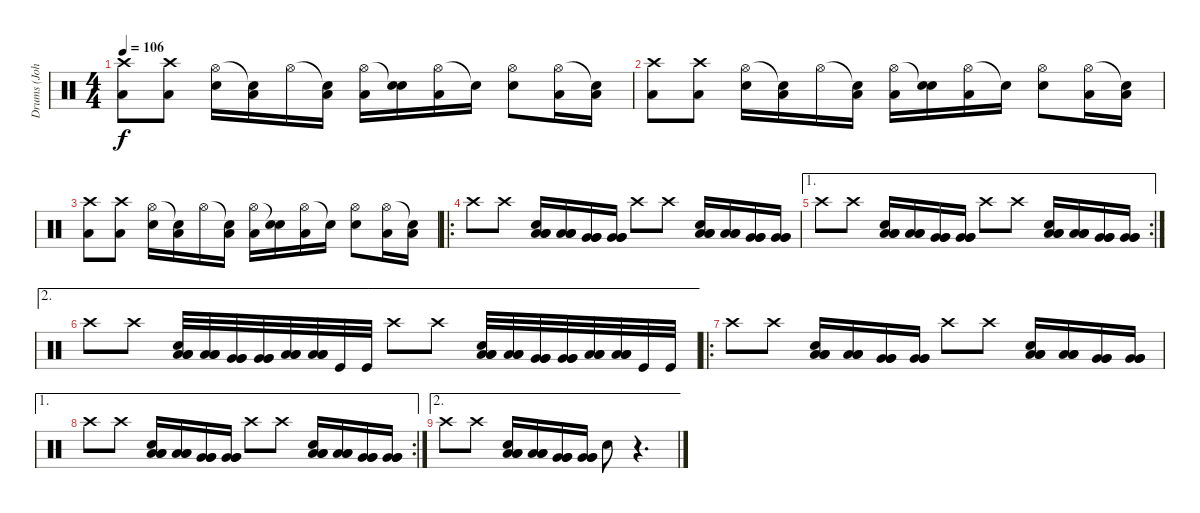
\track ("Drums (John)" "Drums (Joh") {instrument percussion}
\staff {score}
\articulation defaults
\ts (4 4)
\tempo 106
\clef neutral
\ks c
("Crash high (hit)" "Low Tom (hit)").8{dy f} ("Crash high (hit)" "Low Tom (hit)").8 ("Hi-Hat (open)" "Electric Snare (hit)").16 ("Snare (hit)"{t} "Low Tom (hit)").16 "Hi-Hat (open)".16 ("Snare (hit)"{t} "Low Tom (hit)").16 ("Hi-Hat (open)" "Low Tom (hit)").16 ("Snare (hit)"{t} "Electric Snare (hit)").16 ("Hi-Hat (open)" "Low Tom (hit)").16 "Snare (hit)"{t}.16 ("Hi-Hat (open)" "Electric Snare (hit)").8 ("Hi-Hat (open)" "Low Tom (hit)").16 ("Snare (hit)"{t} "Low Tom (hit)").16 |
("Crash high (hit)" "Low Tom (hit)").8 ("Crash high (hit)" "Low Tom (hit)").8 ("Hi-Hat (open)" "Electric Snare (hit)").16 ("Snare (hit)"{t} "Low Tom (hit)").16 "Hi-Hat (open)".16 ("Snare (hit)"{t} "Low Tom (hit)").16 ("Hi-Hat (open)" "Low Tom (hit)").16 ("Snare (hit)"{t} "Electric Snare (hit)").16 ("Hi-Hat (open)" "Low Tom (hit)").16 "Snare (hit)"{t}.16 ("Hi-Hat (open)" "Electric Snare (hit)").8 ("Hi-Hat (open)" "Low Tom (hit)").16 ("Snare (hit)"{t} "Low Tom (hit)").16 |
("Crash high (hit)" "Low Tom (hit)").8 ("Crash high (hit)" "Low Tom (hit)").8 ("Hi-Hat (open)" "Electric Snare (hit)").16 ("Snare (hit)"{t} "Low Tom (hit)").16 "Hi-Hat (open)".16 ("Snare (hit)"{t} "Low Tom (hit)").16 ("Hi-Hat (open)" "Low Tom (hit)").16 ("Snare (hit)"{t} "Electric Snare (hit)").16 ("Hi-Hat (open)" "Low Tom (hit)").16 "Snare (hit)"{t}.16 ("Hi-Hat (open)" "Electric Snare (hit)").8 ("Hi-Hat (open)" "Low Tom (hit)").16 ("Snare (hit)"{t} "Low Tom (hit)").16 |
\ro "Crash high (hit)".8 "Crash high (hit)".8
("Low Tom (hit)" "Low Tom (hit)" "Low Tom (hit)" "Electric Snare (hit)").16 ("Low Tom (hit)" "Low Tom (hit)" "Low Tom (hit)").16 ("Very Low Tom (hit)" "Very Low Tom (hit)" "Very Low Tom (hit)").16 ("Very Low Tom (hit)" "Very Low Tom (hit)" "Very Low Tom (hit)").16 "Crash high (hit)".8 "Crash high (hit)".8 ("Low Tom (hit)" "Low Tom (hit)" "Low Tom (hit)" "Electric Snare (hit)").16 ("Low Tom (hit)" "Low Tom (hit)" "Low Tom (hit)").16 ("Very Low Tom (hit)" "Very Low Tom (hit)" "Very Low Tom (hit)").16 ("Very Low Tom (hit)" "Very Low Tom (hit)" "Very Low Tom (hit)").16 |
\ae 1
\rc 2 "Crash high (hit)".8 "Crash high (hit)".8
("Low Tom (hit)" "Low Tom (hit)" "Low Tom (hit)" "Electric Snare (hit)").16 ("Low Tom (hit)" "Low Tom (hit)" "Low Tom (hit)").16 ("Very Low Tom (hit)" "Very Low Tom (hit)" "Very Low Tom (hit)").16 ("Very Low Tom (hit)" "Very Low Tom (hit)" "Very Low Tom (hit)").16 "Crash high (hit)".8 "Crash high (hit)".8 ("Low Tom (hit)" "Low Tom (hit)" "Low Tom (hit)" "Electric Snare (hit)").16 ("Low Tom (hit)" "Low Tom (hit)" "Low Tom (hit)").16 ("Very Low Tom (hit)" "Very Low Tom (hit)" "Very Low Tom (hit)").16 ("Very Low Tom (hit)" "Very Low Tom (hit)" "Very Low Tom (hit)").16 |
\ae 2 "Crash high (hit)".8 "Crash high (hit)".8
("Low Tom (hit)" "Low Tom (hit)" "Low Tom (hit)" "Electric Snare (hit)").32 ("Low Tom (hit)" "Low Tom (hit)" "Low Tom (hit)").32 ("Very Low Tom (hit)" "Very Low Tom (hit)" "Very Low Tom (hit)").32 ("Very Low Tom (hit)" "Very Low Tom (hit)" "Very Low Tom (hit)").32 ("Low Floor Tom (hit)" "Low Floor Tom (hit)" "Low Floor Tom (hit)").32 ("Low Floor Tom (hit)" "Low Floor Tom (hit)" "Low Floor Tom (hit)").32 "Kick (hit)".32 "Kick (hit)".32 "Crash high (hit)".8 "Crash high (hit)".8 ("Low Tom (hit)" "Low Tom (hit)" "Low Tom (hit)" "Electric Snare (hit)").32 ("Low Tom (hit)" "Low Tom (hit)" "Low Tom (hit)").32 ("Very Low Tom (hit)" "Very Low Tom (hit)" "Very Low Tom (hit)").32 ("Very Low Tom (hit)" "Very Low Tom (hit)" "Very Low Tom (hit)").32 ("Low Floor Tom (hit)" "Low Floor Tom (hit)" "Low Floor Tom (hit)").32 ("Low Floor Tom (hit)" "Low Floor Tom (hit)" "Low Floor Tom (hit)").32 "Kick (hit)".32 "Kick (hit)".32 |
\ro "Crash high (hit)".8 "Crash high (hit)".8
("Low Tom (hit)" "Low Tom (hit)" "Low Tom (hit)" "Electric Snare (hit)").16 ("Low Tom (hit)" "Low Tom (hit)" "Low Tom (hit)").16 ("Very Low Tom (hit)" "Very Low Tom (hit)" "Very Low Tom (hit)").16 ("Very Low Tom (hit)" "Very Low Tom (hit)" "Very Low Tom (hit)").16 "Crash high (hit)".8 "Crash high (hit)".8 ("Low Tom (hit)" "Low Tom (hit)" "Low Tom (hit)" "Electric Snare (hit)").16 ("Low Tom (hit)" "Low Tom (hit)" "Low Tom (hit)").16 ("Very Low Tom (hit)" "Very Low Tom (hit)" "Very Low Tom (hit)").16 ("Very Low Tom (hit)" "Very Low Tom (hit)" "Very Low Tom (hit)").16 |
\ae 1
\rc 2 "Crash high (hit)".8 "Crash high (hit)".8
("Low Tom (hit)" "Low Tom (hit)" "Low Tom (hit)" "Electric Snare (hit)").16 ("Low Tom (hit)" "Low Tom (hit)" "Low Tom (hit)").16 ("Very Low Tom (hit)" "Very Low Tom (hit)" "Very Low Tom (hit)").16 ("Very Low Tom (hit)" "Very Low Tom (hit)" "Very Low Tom (hit)").16 "Crash high (hit)".8 "Crash high (hit)".8 ("Low Tom (hit)" "Low Tom (hit)" "Low Tom (hit)" "Electric Snare (hit)").16 ("Low Tom (hit)" "Low Tom (hit)" "Low Tom (hit)").16 ("Very Low Tom (hit)" "Very Low Tom (hit)" "Very Low Tom (hit)").16 ("Very Low Tom (hit)" "Very Low Tom (hit)" "Very Low Tom (hit)").16 |
\ae 2 "Crash high (hit)".8 "Crash high (hit)".8
("Low Tom (hit)" "Low Tom (hit)" "Low Tom (hit)" "Electric Snare (hit)").16 ("Low Tom (hit)" "Low Tom (hit)" "Low Tom (hit)").16 ("Very Low Tom (hit)" "Very Low Tom (hit)" "Very Low Tom (hit)").16 ("Very Low Tom (hit)" "Very Low Tom (hit)" "Very Low Tom (hit)").16 "Electric Snare (hit)".8 r.4{d}
